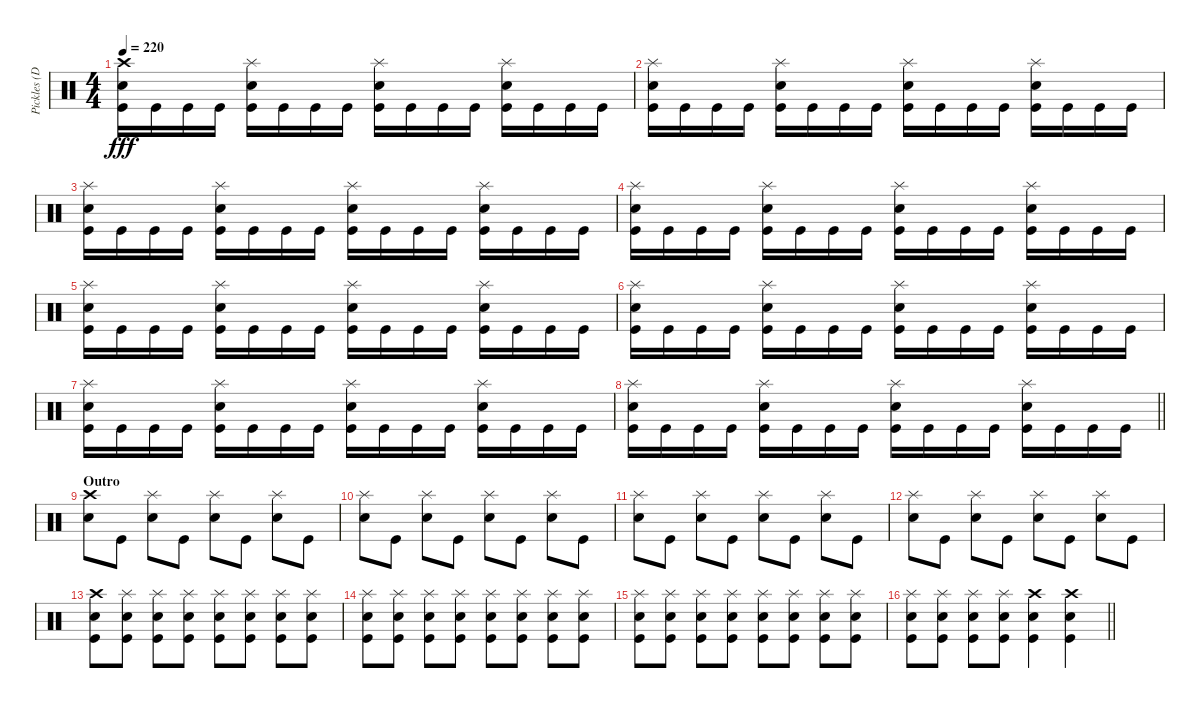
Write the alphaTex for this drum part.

\track ("Pickles (Drums)" "Pickles (D") {instrument percussion}
\staff {score}
\articulation defaults
\ts (4 4)
\tempo 220
\clef neutral
\ks c
("Crash high (hit)" "Electric Snare (hit)" "Kick (hit)").16{dy fff} "Kick (hit)".16 "Kick (hit)".16 "Kick (hit)".16 ("Splash (hit)" "Electric Snare (hit)" "Kick (hit)").16 "Kick (hit)".16 "Kick (hit)".16 "Kick (hit)".16 ("Splash (hit)" "Electric Snare (hit)" "Kick (hit)").16 "Kick (hit)".16 "Kick (hit)".16 "Kick (hit)".16 ("Splash (hit)" "Electric Snare (hit)" "Kick (hit)").16 "Kick (hit)".16 "Kick (hit)".16 "Kick (hit)".16 |
("Splash (hit)" "Electric Snare (hit)" "Kick (hit)").16 "Kick (hit)".16 "Kick (hit)".16 "Kick (hit)".16 ("Splash (hit)" "Electric Snare (hit)" "Kick (hit)").16 "Kick (hit)".16 "Kick (hit)".16 "Kick (hit)".16 ("Splash (hit)" "Electric Snare (hit)" "Kick (hit)").16 "Kick (hit)".16 "Kick (hit)".16 "Kick (hit)".16 ("Splash (hit)" "Electric Snare (hit)" "Kick (hit)").16 "Kick (hit)".16 "Kick (hit)".16 "Kick (hit)".16 |
("Splash (hit)" "Electric Snare (hit)" "Kick (hit)").16 "Kick (hit)".16 "Kick (hit)".16 "Kick (hit)".16 ("Splash (hit)" "Electric Snare (hit)" "Kick (hit)").16 "Kick (hit)".16 "Kick (hit)".16 "Kick (hit)".16 ("Splash (hit)" "Electric Snare (hit)" "Kick (hit)").16 "Kick (hit)".16 "Kick (hit)".16 "Kick (hit)".16 ("Splash (hit)" "Electric Snare (hit)" "Kick (hit)").16 "Kick (hit)".16 "Kick (hit)".16 "Kick (hit)".16 |
("Splash (hit)" "Electric Snare (hit)" "Kick (hit)").16 "Kick (hit)".16 "Kick (hit)".16 "Kick (hit)".16 ("Splash (hit)" "Electric Snare (hit)" "Kick (hit)").16 "Kick (hit)".16 "Kick (hit)".16 "Kick (hit)".16 ("Splash (hit)" "Electric Snare (hit)" "Kick (hit)").16 "Kick (hit)".16 "Kick (hit)".16 "Kick (hit)".16 ("Splash (hit)" "Electric Snare (hit)" "Kick (hit)").16 "Kick (hit)".16 "Kick (hit)".16 "Kick (hit)".16 |
("Splash (hit)" "Electric Snare (hit)" "Kick (hit)").16 "Kick (hit)".16 "Kick (hit)".16 "Kick (hit)".16 ("Splash (hit)" "Electric Snare (hit)" "Kick (hit)").16 "Kick (hit)".16 "Kick (hit)".16 "Kick (hit)".16 ("Splash (hit)" "Electric Snare (hit)" "Kick (hit)").16 "Kick (hit)".16 "Kick (hit)".16 "Kick (hit)".16 ("Splash (hit)" "Electric Snare (hit)" "Kick (hit)").16 "Kick (hit)".16 "Kick (hit)".16 "Kick (hit)".16 |
("Splash (hit)" "Electric Snare (hit)" "Kick (hit)").16 "Kick (hit)".16 "Kick (hit)".16 "Kick (hit)".16 ("Splash (hit)" "Electric Snare (hit)" "Kick (hit)").16 "Kick (hit)".16 "Kick (hit)".16 "Kick (hit)".16 ("Splash (hit)" "Electric Snare (hit)" "Kick (hit)").16 "Kick (hit)".16 "Kick (hit)".16 "Kick (hit)".16 ("Splash (hit)" "Electric Snare (hit)" "Kick (hit)").16 "Kick (hit)".16 "Kick (hit)".16 "Kick (hit)".16 |
("Splash (hit)" "Electric Snare (hit)" "Kick (hit)").16 "Kick (hit)".16 "Kick (hit)".16 "Kick (hit)".16 ("Splash (hit)" "Electric Snare (hit)" "Kick (hit)").16 "Kick (hit)".16 "Kick (hit)".16 "Kick (hit)".16 ("Splash (hit)" "Electric Snare (hit)" "Kick (hit)").16 "Kick (hit)".16 "Kick (hit)".16 "Kick (hit)".16 ("Splash (hit)" "Electric Snare (hit)" "Kick (hit)").16 "Kick (hit)".16 "Kick (hit)".16 "Kick (hit)".16 |
\barLineRight lightlight
("Splash (hit)" "Electric Snare (hit)" "Kick (hit)").16 "Kick (hit)".16 "Kick (hit)".16 "Kick (hit)".16 ("Splash (hit)" "Electric Snare (hit)" "Kick (hit)").16 "Kick (hit)".16 "Kick (hit)".16 "Kick (hit)".16 ("Splash (hit)" "Electric Snare (hit)" "Kick (hit)").16 "Kick (hit)".16 "Kick (hit)".16 "Kick (hit)".16 ("Splash (hit)" "Electric Snare (hit)" "Kick (hit)").16 "Kick (hit)".16 "Kick (hit)".16 "Kick (hit)".16 |
\section ("" "Outro")
("Crash high (hit)" "Electric Snare (hit)").8 "Kick (hit)".8 ("Splash (hit)" "Electric Snare (hit)").8 "Kick (hit)".8 ("Splash (hit)" "Electric Snare (hit)").8 "Kick (hit)".8 ("Splash (hit)" "Electric Snare (hit)").8 "Kick (hit)".8 |
("Splash (hit)" "Electric Snare (hit)").8 "Kick (hit)".8 ("Splash (hit)" "Electric Snare (hit)").8 "Kick (hit)".8 ("Splash (hit)" "Electric Snare (hit)").8 "Kick (hit)".8 ("Splash (hit)" "Electric Snare (hit)").8 "Kick (hit)".8 |
("Splash (hit)" "Electric Snare (hit)").8 "Kick (hit)".8 ("Splash (hit)" "Electric Snare (hit)").8 "Kick (hit)".8 ("Splash (hit)" "Electric Snare (hit)").8 "Kick (hit)".8 ("Splash (hit)" "Electric Snare (hit)").8 "Kick (hit)".8 |
("Splash (hit)" "Electric Snare (hit)").8 "Kick (hit)".8 ("Splash (hit)" "Electric Snare (hit)").8 "Kick (hit)".8 ("Splash (hit)" "Electric Snare (hit)").8 "Kick (hit)".8 ("Splash (hit)" "Electric Snare (hit)").8 "Kick (hit)".8 |
("Crash high (hit)" "Electric Snare (hit)" "Kick (hit)").8 ("Splash (hit)" "Electric Snare (hit)" "Kick (hit)").8 ("Splash (hit)" "Electric Snare (hit)" "Kick (hit)").8 ("Splash (hit)" "Electric Snare (hit)" "Kick (hit)").8 ("Splash (hit)" "Electric Snare (hit)" "Kick (hit)").8 ("Splash (hit)" "Electric Snare (hit)" "Kick (hit)").8 ("Splash (hit)" "Electric Snare (hit)" "Kick (hit)").8 ("Splash (hit)" "Electric Snare (hit)" "Kick (hit)").8 |
("Splash (hit)" "Electric Snare (hit)" "Kick (hit)").8 ("Splash (hit)" "Electric Snare (hit)" "Kick (hit)").8 ("Splash (hit)" "Electric Snare (hit)" "Kick (hit)").8 ("Splash (hit)" "Electric Snare (hit)" "Kick (hit)").8 ("Splash (hit)" "Electric Snare (hit)" "Kick (hit)").8 ("Splash (hit)" "Electric Snare (hit)" "Kick (hit)").8 ("Splash (hit)" "Electric Snare (hit)" "Kick (hit)").8 ("Splash (hit)" "Electric Snare (hit)" "Kick (hit)").8 |
("Splash (hit)" "Electric Snare (hit)" "Kick (hit)").8 ("Splash (hit)" "Electric Snare (hit)" "Kick (hit)").8 ("Splash (hit)" "Electric Snare (hit)" "Kick (hit)").8 ("Splash (hit)" "Electric Snare (hit)" "Kick (hit)").8 ("Splash (hit)" "Electric Snare (hit)" "Kick (hit)").8 ("Splash (hit)" "Electric Snare (hit)" "Kick (hit)").8 ("Splash (hit)" "Electric Snare (hit)" "Kick (hit)").8 ("Splash (hit)" "Electric Snare (hit)" "Kick (hit)").8 |
\barLineRight lightlight
("Splash (hit)" "Electric Snare (hit)" "Kick (hit)").8 ("Splash (hit)" "Electric Snare (hit)" "Kick (hit)").8 ("Splash (hit)" "Electric Snare (hit)" "Kick (hit)").8 ("Splash (hit)" "Electric Snare (hit)" "Kick (hit)").8 ("Crash high (hit)" "Electric Snare (hit)" "Kick (hit)").4 ("Crash high (hit)" "Electric Snare (hit)" "Kick (hit)").4
